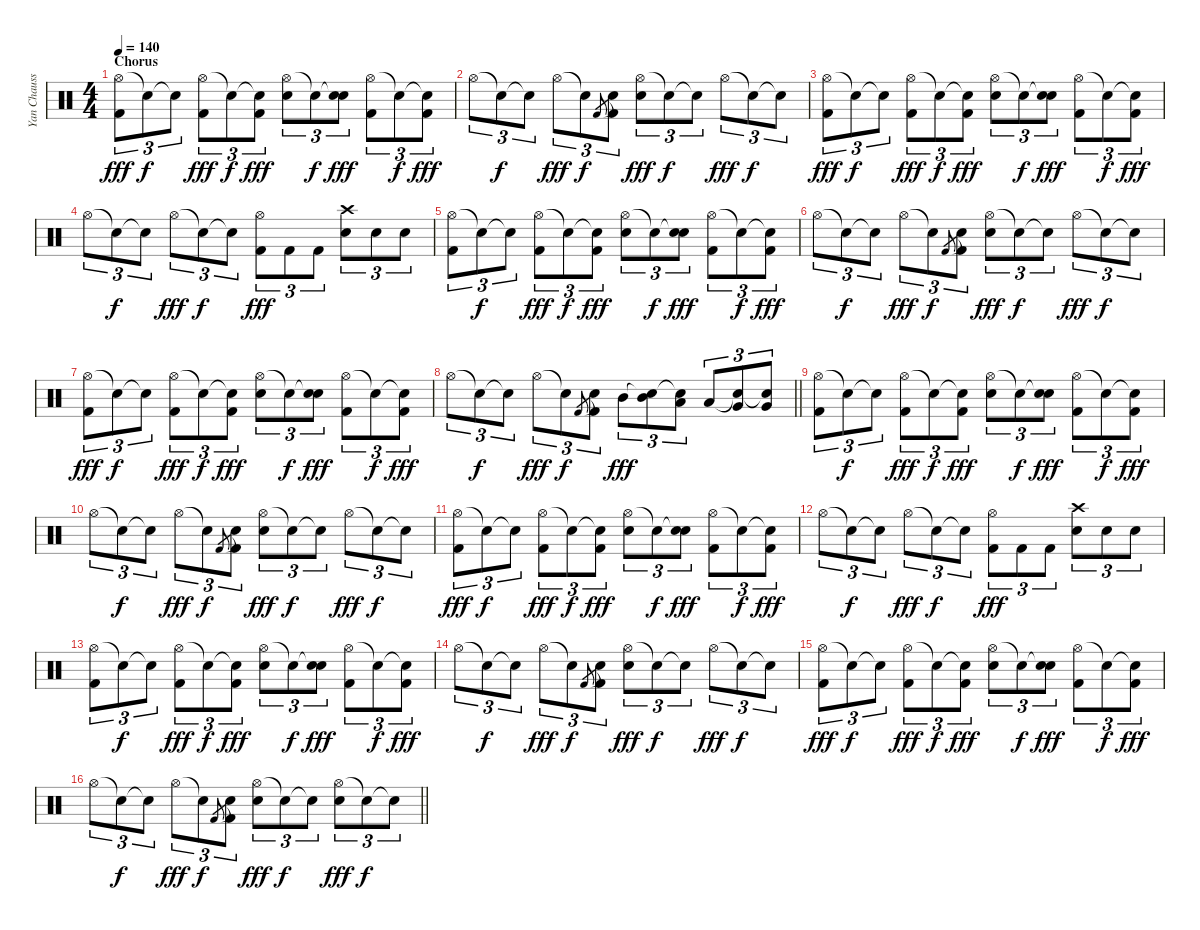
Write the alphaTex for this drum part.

\track ("Yan Chausse" "Yan Chauss") {instrument percussion}
\staff {score}
\articulation defaults
\ts (4 4)
\section ("" "Chorus")
\tempo 140
\clef neutral
\ks c
("Hi-Hat (open)" "Kick (hit) 2").8{tu (3 2) dy fff} "Snare (hit)"{t}.8{tu (3 2) dy f} "Snare (hit)"{t}.8{tu (3 2)} ("Hi-Hat (open)" "Kick (hit) 2").8{tu (3 2) dy fff} "Snare (hit)"{t}.8{tu (3 2) dy f} ("Snare (hit)"{t} "Kick (hit) 2").8{tu (3 2) dy fff} ("Hi-Hat (open)" "Snare (hit) 2").8{tu (3 2)} "Snare (hit)"{t}.8{tu (3 2) dy f} ("Snare (hit)"{t} "Snare (hit) 2").8{tu (3 2) dy fff} ("Hi-Hat (open)" "Kick (hit) 2").8{tu (3 2)} "Snare (hit)"{t}.8{tu (3 2) dy f} ("Snare (hit)"{t} "Kick (hit) 2").8{tu (3 2) dy fff} |
"Hi-Hat (open)".8{tu (3 2)} "Snare (hit)"{t}.8{tu (3 2) dy f} "Snare (hit)"{t}.8{tu (3 2)} "Hi-Hat (open)".8{tu (3 2) dy fff} "Snare (hit)"{t}.8{tu (3 2) dy f} "Kick (hit) 2".8{gr} ("Snare (hit)"{t} "Kick (hit) 2").8{tu (3 2)} ("Hi-Hat (open)" "Snare (hit) 2").8{tu (3 2) dy fff} "Snare (hit)"{t}.8{tu (3 2) dy f} "Snare (hit)"{t}.8{tu (3 2)} "Hi-Hat (open)".8{tu (3 2) dy fff} "Snare (hit)"{t}.8{tu (3 2) dy f} "Snare (hit)"{t}.8{tu (3 2)} |
("Hi-Hat (open)" "Kick (hit) 2").8{tu (3 2) dy fff} "Snare (hit)"{t}.8{tu (3 2) dy f} "Snare (hit)"{t}.8{tu (3 2)} ("Hi-Hat (open)" "Kick (hit) 2").8{tu (3 2) dy fff} "Snare (hit)"{t}.8{tu (3 2) dy f} ("Snare (hit)"{t} "Kick (hit) 2").8{tu (3 2) dy fff} ("Hi-Hat (open)" "Snare (hit) 2").8{tu (3 2)} "Snare (hit)"{t}.8{tu (3 2) dy f} ("Snare (hit)"{t} "Snare (hit) 2").8{tu (3 2) dy fff} ("Hi-Hat (open)" "Kick (hit) 2").8{tu (3 2)} "Snare (hit)"{t}.8{tu (3 2) dy f} ("Snare (hit)"{t} "Kick (hit) 2").8{tu (3 2) dy fff} |
"Hi-Hat (open)".8{tu (3 2)} "Snare (hit)"{t}.8{tu (3 2) dy f} "Snare (hit)"{t}.8{tu (3 2)} "Hi-Hat (open)".8{tu (3 2) dy fff} "Snare (hit)"{t}.8{tu (3 2) dy f} "Snare (hit)"{t}.8{tu (3 2)} ("Hi-Hat (open)" "Kick (hit) 2").8{tu (3 2) dy fff} "Kick (hit) 2".8{tu (3 2)} "Kick (hit) 2".8{tu (3 2)} ("Crash high (hit)" "Snare (hit) 2").8{tu (3 2)} "Snare (hit) 2".8{tu (3 2)} "Snare (hit) 2".8{tu (3 2)} |
("Hi-Hat (open)" "Kick (hit) 2").8{tu (3 2)} "Snare (hit)"{t}.8{tu (3 2) dy f} "Snare (hit)"{t}.8{tu (3 2)} ("Hi-Hat (open)" "Kick (hit) 2").8{tu (3 2) dy fff} "Snare (hit)"{t}.8{tu (3 2) dy f} ("Snare (hit)"{t} "Kick (hit) 2").8{tu (3 2) dy fff} ("Hi-Hat (open)" "Snare (hit) 2").8{tu (3 2)} "Snare (hit)"{t}.8{tu (3 2) dy f} ("Snare (hit)"{t} "Snare (hit) 2").8{tu (3 2) dy fff} ("Hi-Hat (open)" "Kick (hit) 2").8{tu (3 2)} "Snare (hit)"{t}.8{tu (3 2) dy f} ("Snare (hit)"{t} "Kick (hit) 2").8{tu (3 2) dy fff} |
"Hi-Hat (open)".8{tu (3 2)} "Snare (hit)"{t}.8{tu (3 2) dy f} "Snare (hit)"{t}.8{tu (3 2)} "Hi-Hat (open)".8{tu (3 2) dy fff} "Snare (hit)"{t}.8{tu (3 2) dy f} "Kick (hit) 2".8{gr} ("Snare (hit)"{t} "Kick (hit) 2").8{tu (3 2)} ("Hi-Hat (open)" "Snare (hit) 2").8{tu (3 2) dy fff} "Snare (hit)"{t}.8{tu (3 2) dy f} "Snare (hit)"{t}.8{tu (3 2)} "Hi-Hat (open)".8{tu (3 2) dy fff} "Snare (hit)"{t}.8{tu (3 2) dy f} "Snare (hit)"{t}.8{tu (3 2)} |
("Hi-Hat (open)" "Kick (hit) 2").8{tu (3 2) dy fff} "Snare (hit)"{t}.8{tu (3 2) dy f} "Snare (hit)"{t}.8{tu (3 2)} ("Hi-Hat (open)" "Kick (hit) 2").8{tu (3 2) dy fff} "Snare (hit)"{t}.8{tu (3 2) dy f} ("Snare (hit)"{t} "Kick (hit) 2").8{tu (3 2) dy fff} ("Hi-Hat (open)" "Snare (hit) 2").8{tu (3 2)} "Snare (hit)"{t}.8{tu (3 2) dy f} ("Snare (hit)"{t} "Snare (hit) 2").8{tu (3 2) dy fff} ("Hi-Hat (open)" "Kick (hit) 2").8{tu (3 2)} "Snare (hit)"{t}.8{tu (3 2) dy f} ("Snare (hit)"{t} "Kick (hit) 2").8{tu (3 2) dy fff} |
\barLineRight lightlight "Hi-Hat (open)".8{tu (3 2)} "Snare (hit)"{t}.8{tu (3 2) dy f} "Snare (hit)"{t}.8{tu (3 2)} "Hi-Hat (open)".8{tu (3 2) dy fff} "Snare (hit)"{t}.8{tu (3 2) dy f} "Kick (hit) 2".8{gr}
("Snare (hit)"{t} "Kick (hit) 2").8{tu (3 2)} "Mid Tom (hit)".8{tu (3 2) dy fff} ("Snare (hit)"{t} "Mid Tom (hit)").8{tu (3 2)} ("Snare (hit)"{t} "Low Tom (hit)").8{tu (3 2)} "Low Tom (hit)".8{tu (3 2)} ("Snare (hit)"{t} "Very Low Tom (hit)").8{tu (3 2)} ("Snare (hit)"{t} "Very Low Tom (hit)").8{tu (3 2)} |
("Hi-Hat (open)" "Kick (hit) 2").8{tu (3 2)} "Snare (hit)"{t}.8{tu (3 2) dy f} "Snare (hit)"{t}.8{tu (3 2)} ("Hi-Hat (open)" "Kick (hit) 2").8{tu (3 2) dy fff} "Snare (hit)"{t}.8{tu (3 2) dy f} ("Snare (hit)"{t} "Kick (hit) 2").8{tu (3 2) dy fff} ("Hi-Hat (open)" "Snare (hit) 2").8{tu (3 2)} "Snare (hit)"{t}.8{tu (3 2) dy f} ("Snare (hit)"{t} "Snare (hit) 2").8{tu (3 2) dy fff} ("Hi-Hat (open)" "Kick (hit) 2").8{tu (3 2)} "Snare (hit)"{t}.8{tu (3 2) dy f} ("Snare (hit)"{t} "Kick (hit) 2").8{tu (3 2) dy fff} |
"Hi-Hat (open)".8{tu (3 2)} "Snare (hit)"{t}.8{tu (3 2) dy f} "Snare (hit)"{t}.8{tu (3 2)} "Hi-Hat (open)".8{tu (3 2) dy fff} "Snare (hit)"{t}.8{tu (3 2) dy f} "Kick (hit) 2".8{gr} ("Snare (hit)"{t} "Kick (hit) 2").8{tu (3 2)} ("Hi-Hat (open)" "Snare (hit) 2").8{tu (3 2) dy fff} "Snare (hit)"{t}.8{tu (3 2) dy f} "Snare (hit)"{t}.8{tu (3 2)} "Hi-Hat (open)".8{tu (3 2) dy fff} "Snare (hit)"{t}.8{tu (3 2) dy f} "Snare (hit)"{t}.8{tu (3 2)} |
("Hi-Hat (open)" "Kick (hit) 2").8{tu (3 2) dy fff} "Snare (hit)"{t}.8{tu (3 2) dy f} "Snare (hit)"{t}.8{tu (3 2)} ("Hi-Hat (open)" "Kick (hit) 2").8{tu (3 2) dy fff} "Snare (hit)"{t}.8{tu (3 2) dy f} ("Snare (hit)"{t} "Kick (hit) 2").8{tu (3 2) dy fff} ("Hi-Hat (open)" "Snare (hit) 2").8{tu (3 2)} "Snare (hit)"{t}.8{tu (3 2) dy f} ("Snare (hit)"{t} "Snare (hit) 2").8{tu (3 2) dy fff} ("Hi-Hat (open)" "Kick (hit) 2").8{tu (3 2)} "Snare (hit)"{t}.8{tu (3 2) dy f} ("Snare (hit)"{t} "Kick (hit) 2").8{tu (3 2) dy fff} |
"Hi-Hat (open)".8{tu (3 2)} "Snare (hit)"{t}.8{tu (3 2) dy f} "Snare (hit)"{t}.8{tu (3 2)} "Hi-Hat (open)".8{tu (3 2) dy fff} "Snare (hit)"{t}.8{tu (3 2) dy f} "Snare (hit)"{t}.8{tu (3 2)} ("Hi-Hat (open)" "Kick (hit) 2").8{tu (3 2) dy fff} "Kick (hit) 2".8{tu (3 2)} "Kick (hit) 2".8{tu (3 2)} ("Crash high (hit)" "Snare (hit) 2").8{tu (3 2)} "Snare (hit) 2".8{tu (3 2)} "Snare (hit) 2".8{tu (3 2)} |
("Hi-Hat (open)" "Kick (hit) 2").8{tu (3 2)} "Snare (hit)"{t}.8{tu (3 2) dy f} "Snare (hit)"{t}.8{tu (3 2)} ("Hi-Hat (open)" "Kick (hit) 2").8{tu (3 2) dy fff} "Snare (hit)"{t}.8{tu (3 2) dy f} ("Snare (hit)"{t} "Kick (hit) 2").8{tu (3 2) dy fff} ("Hi-Hat (open)" "Snare (hit) 2").8{tu (3 2)} "Snare (hit)"{t}.8{tu (3 2) dy f} ("Snare (hit)"{t} "Snare (hit) 2").8{tu (3 2) dy fff} ("Hi-Hat (open)" "Kick (hit) 2").8{tu (3 2)} "Snare (hit)"{t}.8{tu (3 2) dy f} ("Snare (hit)"{t} "Kick (hit) 2").8{tu (3 2) dy fff} |
"Hi-Hat (open)".8{tu (3 2)} "Snare (hit)"{t}.8{tu (3 2) dy f} "Snare (hit)"{t}.8{tu (3 2)} "Hi-Hat (open)".8{tu (3 2) dy fff} "Snare (hit)"{t}.8{tu (3 2) dy f} "Kick (hit) 2".8{gr} ("Snare (hit)"{t} "Kick (hit) 2").8{tu (3 2)} ("Hi-Hat (open)" "Snare (hit) 2").8{tu (3 2) dy fff} "Snare (hit)"{t}.8{tu (3 2) dy f} "Snare (hit)"{t}.8{tu (3 2)} "Hi-Hat (open)".8{tu (3 2) dy fff} "Snare (hit)"{t}.8{tu (3 2) dy f} "Snare (hit)"{t}.8{tu (3 2)} |
("Hi-Hat (open)" "Kick (hit) 2").8{tu (3 2) dy fff} "Snare (hit)"{t}.8{tu (3 2) dy f} "Snare (hit)"{t}.8{tu (3 2)} ("Hi-Hat (open)" "Kick (hit) 2").8{tu (3 2) dy fff} "Snare (hit)"{t}.8{tu (3 2) dy f} ("Snare (hit)"{t} "Kick (hit) 2").8{tu (3 2) dy fff} ("Hi-Hat (open)" "Snare (hit) 2").8{tu (3 2)} "Snare (hit)"{t}.8{tu (3 2) dy f} ("Snare (hit)"{t} "Snare (hit) 2").8{tu (3 2) dy fff} ("Hi-Hat (open)" "Kick (hit) 2").8{tu (3 2)} "Snare (hit)"{t}.8{tu (3 2) dy f} ("Snare (hit)"{t} "Kick (hit) 2").8{tu (3 2) dy fff} |
\barLineRight lightlight "Hi-Hat (open)".8{tu (3 2)} "Snare (hit)"{t}.8{tu (3 2) dy f} "Snare (hit)"{t}.8{tu (3 2)} "Hi-Hat (open)".8{tu (3 2) dy fff} "Snare (hit)"{t}.8{tu (3 2) dy f} "Kick (hit) 2".8{gr}
("Snare (hit)"{t} "Kick (hit) 2").8{tu (3 2)} ("Hi-Hat (open)" "Snare (hit) 2").8{tu (3 2) dy fff} "Snare (hit)"{t}.8{tu (3 2) dy f} "Snare (hit)"{t}.8{tu (3 2)} ("Hi-Hat (open)" "Snare (hit) 2").8{tu (3 2) dy fff} "Snare (hit)"{t}.8{tu (3 2) dy f} "Snare (hit)"{t}.8{tu (3 2)}
